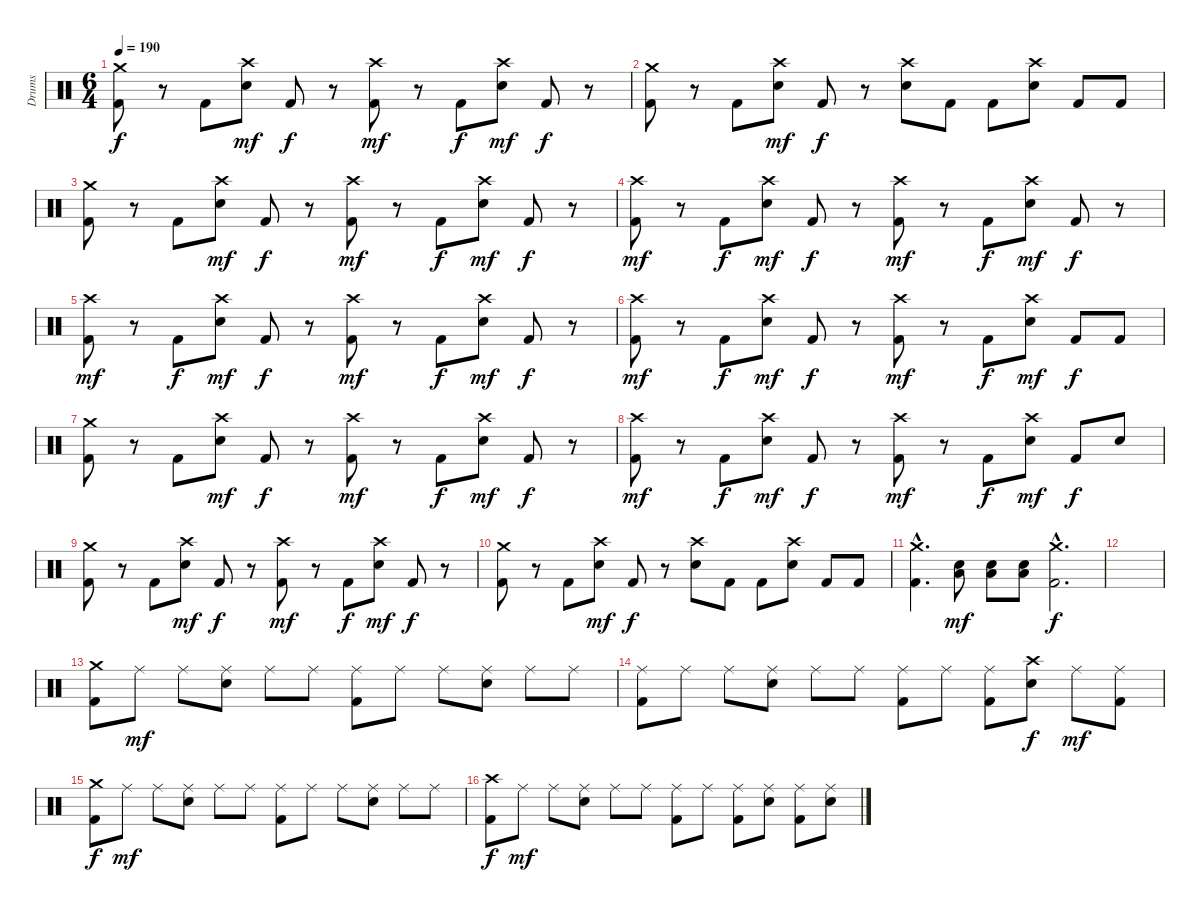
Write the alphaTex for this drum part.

\track ("Drums" "Drums") {instrument percussion}
\staff {score}
\articulation defaults
\ts (6 4)
\tempo 190
\clef neutral
\ks c
("Crash medium (hit)" "Kick (hit) 2").8{dy f} r.8 "Kick (hit) 2".8 ("Crash high (hit)" "Snare (hit) 2").8{dy mf} "Kick (hit) 2".8{dy f} r.8 ("Crash high (hit)" "Kick (hit) 2").8{dy mf} r.8 "Kick (hit) 2".8{dy f} ("Crash high (hit)" "Snare (hit) 2").8{dy mf} "Kick (hit) 2".8{dy f} r.8 |
("Crash medium (hit)" "Kick (hit) 2").8 r.8 "Kick (hit) 2".8 ("Crash high (hit)" "Snare (hit) 2").8{dy mf} "Kick (hit) 2".8{dy f} r.8 ("Crash high (hit)" "Snare (hit) 2").8 "Kick (hit) 2".8 "Kick (hit) 2".8 ("Crash high (hit)" "Snare (hit) 2").8 "Kick (hit) 2".8 "Kick (hit) 2".8 |
("Crash medium (hit)" "Kick (hit) 2").8 r.8 "Kick (hit) 2".8 ("Crash high (hit)" "Snare (hit) 2").8{dy mf} "Kick (hit) 2".8{dy f} r.8 ("Crash high (hit)" "Kick (hit) 2").8{dy mf} r.8 "Kick (hit) 2".8{dy f} ("Crash high (hit)" "Snare (hit) 2").8{dy mf} "Kick (hit) 2".8{dy f} r.8 |
("Crash high (hit)" "Kick (hit) 2").8{dy mf} r.8 "Kick (hit) 2".8{dy f} ("Crash high (hit)" "Snare (hit) 2").8{dy mf} "Kick (hit) 2".8{dy f} r.8 ("Crash high (hit)" "Kick (hit) 2").8{dy mf} r.8 "Kick (hit) 2".8{dy f} ("Crash high (hit)" "Snare (hit) 2").8{dy mf} "Kick (hit) 2".8{dy f} r.8 |
("Crash high (hit)" "Kick (hit) 2").8{dy mf} r.8 "Kick (hit) 2".8{dy f} ("Crash high (hit)" "Snare (hit) 2").8{dy mf} "Kick (hit) 2".8{dy f} r.8 ("Crash high (hit)" "Kick (hit) 2").8{dy mf} r.8 "Kick (hit) 2".8{dy f} ("Crash high (hit)" "Snare (hit) 2").8{dy mf} "Kick (hit) 2".8{dy f} r.8 |
("Crash high (hit)" "Kick (hit) 2").8{dy mf} r.8 "Kick (hit) 2".8{dy f} ("Crash high (hit)" "Snare (hit) 2").8{dy mf} "Kick (hit) 2".8{dy f} r.8 ("Crash high (hit)" "Kick (hit) 2").8{dy mf} r.8 "Kick (hit) 2".8{dy f} ("Crash high (hit)" "Snare (hit) 2").8{dy mf} "Kick (hit) 2".8{dy f} "Kick (hit) 2".8 |
("Crash medium (hit)" "Kick (hit) 2").8 r.8 "Kick (hit) 2".8 ("Crash high (hit)" "Snare (hit) 2").8{dy mf} "Kick (hit) 2".8{dy f} r.8 ("Crash high (hit)" "Kick (hit) 2").8{dy mf} r.8 "Kick (hit) 2".8{dy f} ("Crash high (hit)" "Snare (hit) 2").8{dy mf} "Kick (hit) 2".8{dy f} r.8 |
("Crash high (hit)" "Kick (hit) 2").8{dy mf} r.8 "Kick (hit) 2".8{dy f} ("Crash high (hit)" "Snare (hit) 2").8{dy mf} "Kick (hit) 2".8{dy f} r.8 ("Crash high (hit)" "Kick (hit) 2").8{dy mf} r.8 "Kick (hit) 2".8{dy f} ("Crash high (hit)" "Snare (hit) 2").8{dy mf} "Kick (hit) 2".8{dy f} "Snare (hit) 2".8 |
("Crash medium (hit)" "Kick (hit) 2").8 r.8 "Kick (hit) 2".8 ("Crash high (hit)" "Snare (hit) 2").8{dy mf} "Kick (hit) 2".8{dy f} r.8 ("Crash high (hit)" "Kick (hit) 2").8{dy mf} r.8 "Kick (hit) 2".8{dy f} ("Crash high (hit)" "Snare (hit) 2").8{dy mf} "Kick (hit) 2".8{dy f} r.8 |
("Crash medium (hit)" "Kick (hit) 2").8 r.8 "Kick (hit) 2".8 ("Crash high (hit)" "Snare (hit) 2").8{dy mf} "Kick (hit) 2".8{dy f} r.8 ("Crash high (hit)" "Snare (hit) 2").8 "Kick (hit) 2".8 "Kick (hit) 2".8 ("Crash high (hit)" "Snare (hit) 2").8 "Kick (hit) 2".8 "Kick (hit) 2".8 |
("Crash medium (hit)"{hac} "Kick (hit) 2"{hac}).4{d} ("Low Floor Tom (hit)" "Snare (hit) 2").8{dy mf} ("Low Floor Tom (hit)" "Snare (hit) 2").8 ("Low Floor Tom (hit)" "Snare (hit) 2").8 ("Crash medium (hit)"{hac} "Kick (hit) 2"{hac}).2{d dy f} |
|
("Crash medium (hit)" "Kick (hit) 2").8 "Ride (middle)".8{dy mf} "Ride (middle)".8 ("Ride (middle)" "Snare (hit) 2").8 "Ride (middle)".8 "Ride (middle)".8 ("Ride (middle)" "Kick (hit) 2").8 "Ride (middle)".8 "Ride (middle)".8 ("Ride (middle)" "Snare (hit) 2").8 "Ride (middle)".8 "Ride (middle)".8 |
("Ride (middle)" "Kick (hit) 2").8 "Ride (middle)".8 "Ride (middle)".8 ("Ride (middle)" "Snare (hit) 2").8 "Ride (middle)".8 "Ride (middle)".8 ("Ride (middle)" "Kick (hit) 2").8 "Ride (middle)".8 ("Ride (middle)" "Kick (hit) 2").8 ("Crash high (hit)" "Snare (hit) 2").8{dy f} "Ride (middle)".8{dy mf} ("Ride (middle)" "Kick (hit) 2").8 |
("Crash medium (hit)" "Kick (hit) 2").8{dy f} "Ride (middle)".8{dy mf} "Ride (middle)".8 ("Ride (middle)" "Snare (hit) 2").8 "Ride (middle)".8 "Ride (middle)".8 ("Ride (middle)" "Kick (hit) 2").8 "Ride (middle)".8 "Ride (middle)".8 ("Ride (middle)" "Snare (hit) 2").8 "Ride (middle)".8 "Ride (middle)".8 |
("Crash high (hit)" "Kick (hit) 2").8{dy f} "Ride (middle)".8{dy mf} "Ride (middle)".8 ("Ride (middle)" "Snare (hit) 2").8 "Ride (middle)".8 "Ride (middle)".8 ("Ride (middle)" "Kick (hit) 2").8 "Ride (middle)".8 ("Ride (middle)" "Kick (hit) 2").8 ("Ride (middle)" "Snare (hit) 2").8 ("Ride (middle)" "Kick (hit) 2").8 ("Ride (middle)" "Snare (hit) 2").8
